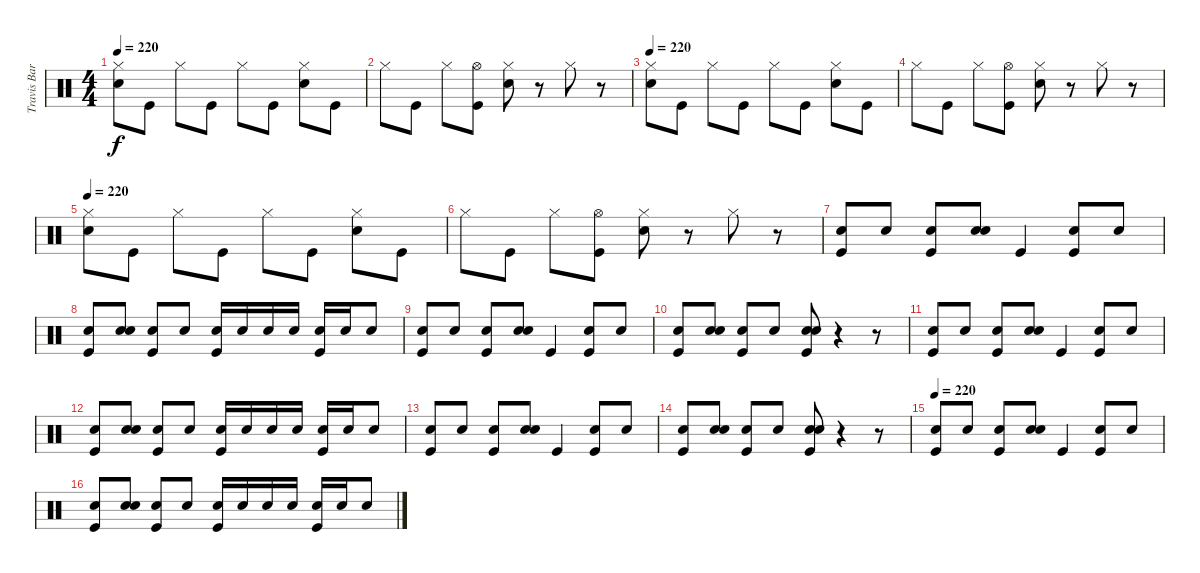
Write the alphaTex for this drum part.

\track ("Travis Barker" "Travis Bar") {instrument percussion}
\staff {score}
\articulation defaults
\ts (4 4)
\tempo 220
\clef neutral
\ks c
("Electric Snare (hit)" "Hi-Hat (closed)").8{dy f} "Kick (hit)".8 "Hi-Hat (closed)".8 "Kick (hit)".8 "Hi-Hat (closed)".8 "Kick (hit)".8 ("Electric Snare (hit)" "Hi-Hat (closed)").8 "Kick (hit)".8 |
"Hi-Hat (closed)".8 "Kick (hit)".8 "Hi-Hat (closed)".8 ("Kick (hit)" "Hi-Hat (open)").8 ("Electric Snare (hit)" "Hi-Hat (closed)").8 r.8 "Hi-Hat (closed)".8 r.8 |
\tempo 220
("Electric Snare (hit)" "Hi-Hat (closed)").8 "Kick (hit)".8 "Hi-Hat (closed)".8 "Kick (hit)".8 "Hi-Hat (closed)".8 "Kick (hit)".8 ("Electric Snare (hit)" "Hi-Hat (closed)").8 "Kick (hit)".8 |
"Hi-Hat (closed)".8 "Kick (hit)".8 "Hi-Hat (closed)".8 ("Kick (hit)" "Hi-Hat (open)").8 ("Electric Snare (hit)" "Hi-Hat (closed)").8 r.8 "Hi-Hat (closed)".8 r.8 |
\tempo 220
("Electric Snare (hit)" "Hi-Hat (closed)").8 "Kick (hit)".8 "Hi-Hat (closed)".8 "Kick (hit)".8 "Hi-Hat (closed)".8 "Kick (hit)".8 ("Electric Snare (hit)" "Hi-Hat (closed)").8 "Kick (hit)".8 |
"Hi-Hat (closed)".8 "Kick (hit)".8 "Hi-Hat (closed)".8 ("Kick (hit)" "Hi-Hat (open)").8 ("Electric Snare (hit)" "Hi-Hat (closed)").8 r.8 "Hi-Hat (closed)".8 r.8 |
("Electric Snare (hit)" "Kick (hit)").8 "Electric Snare (hit)".8 ("Electric Snare (hit)" "Kick (hit)").8 ("Electric Snare (hit)" "Electric Snare (hit)").8 "Kick (hit)".4 ("Electric Snare (hit)" "Kick (hit)").8 "Electric Snare (hit)".8 |
("Electric Snare (hit)" "Kick (hit)").8 ("Electric Snare (hit)" "Electric Snare (hit)").8 ("Electric Snare (hit)" "Kick (hit)").8 "Electric Snare (hit)".8 ("Electric Snare (hit)" "Kick (hit)").16 "Electric Snare (hit)".16 "Electric Snare (hit)".16 "Electric Snare (hit)".16 ("Electric Snare (hit)" "Kick (hit)").16 "Electric Snare (hit)".16 "Electric Snare (hit)".8 |
("Electric Snare (hit)" "Kick (hit)").8 "Electric Snare (hit)".8 ("Electric Snare (hit)" "Kick (hit)").8 ("Electric Snare (hit)" "Electric Snare (hit)").8 "Kick (hit)".4 ("Electric Snare (hit)" "Kick (hit)").8 "Electric Snare (hit)".8 |
("Electric Snare (hit)" "Kick (hit)").8 ("Electric Snare (hit)" "Electric Snare (hit)").8 ("Electric Snare (hit)" "Kick (hit)").8 "Electric Snare (hit)".8 ("Electric Snare (hit)" "Electric Snare (hit)" "Kick (hit)").8 r.4 r.8 |
("Electric Snare (hit)" "Kick (hit)").8 "Electric Snare (hit)".8 ("Electric Snare (hit)" "Kick (hit)").8 ("Electric Snare (hit)" "Electric Snare (hit)").8 "Kick (hit)".4 ("Electric Snare (hit)" "Kick (hit)").8 "Electric Snare (hit)".8 |
("Electric Snare (hit)" "Kick (hit)").8 ("Electric Snare (hit)" "Electric Snare (hit)").8 ("Electric Snare (hit)" "Kick (hit)").8 "Electric Snare (hit)".8 ("Electric Snare (hit)" "Kick (hit)").16 "Electric Snare (hit)".16 "Electric Snare (hit)".16 "Electric Snare (hit)".16 ("Electric Snare (hit)" "Kick (hit)").16 "Electric Snare (hit)".16 "Electric Snare (hit)".8 |
("Electric Snare (hit)" "Kick (hit)").8 "Electric Snare (hit)".8 ("Electric Snare (hit)" "Kick (hit)").8 ("Electric Snare (hit)" "Electric Snare (hit)").8 "Kick (hit)".4 ("Electric Snare (hit)" "Kick (hit)").8 "Electric Snare (hit)".8 |
("Electric Snare (hit)" "Kick (hit)").8 ("Electric Snare (hit)" "Electric Snare (hit)").8 ("Electric Snare (hit)" "Kick (hit)").8 "Electric Snare (hit)".8 ("Electric Snare (hit)" "Electric Snare (hit)" "Kick (hit)").8 r.4 r.8 |
\tempo 220
("Electric Snare (hit)" "Kick (hit)").8 "Electric Snare (hit)".8 ("Electric Snare (hit)" "Kick (hit)").8 ("Electric Snare (hit)" "Electric Snare (hit)").8 "Kick (hit)".4 ("Electric Snare (hit)" "Kick (hit)").8 "Electric Snare (hit)".8 |
("Electric Snare (hit)" "Kick (hit)").8 ("Electric Snare (hit)" "Electric Snare (hit)").8 ("Electric Snare (hit)" "Kick (hit)").8 "Electric Snare (hit)".8 ("Electric Snare (hit)" "Kick (hit)").16 "Electric Snare (hit)".16 "Electric Snare (hit)".16 "Electric Snare (hit)".16 ("Electric Snare (hit)" "Kick (hit)").16 "Electric Snare (hit)".16 "Electric Snare (hit)".8
